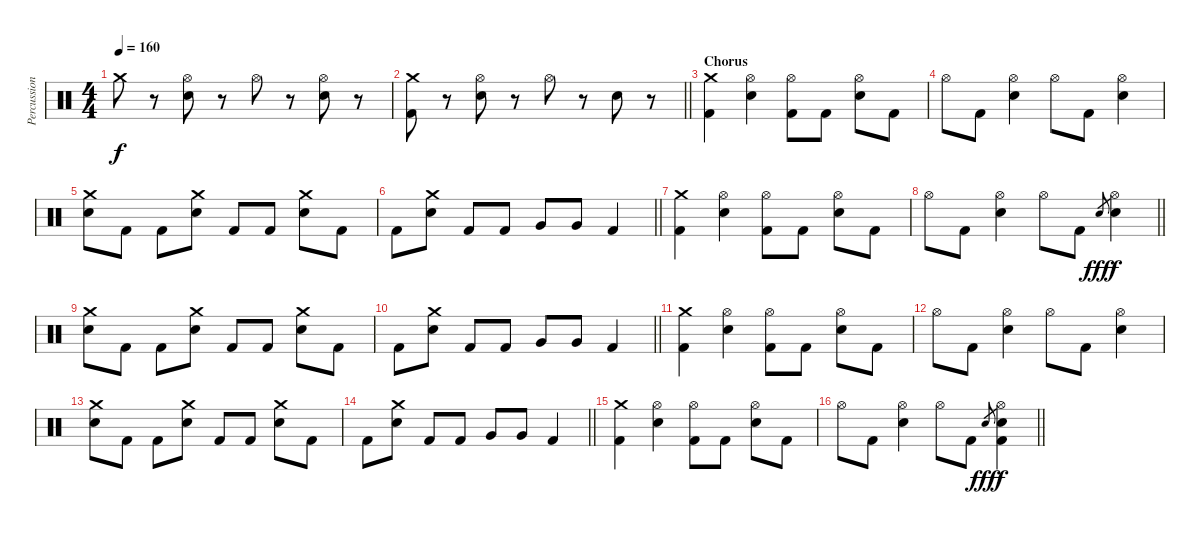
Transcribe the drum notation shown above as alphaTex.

\track ("Percussion" "Percussion") {instrument percussion}
\staff {score}
\articulation defaults
\ts (4 4)
\tempo 160
\clef neutral
\ks c "Crash medium (hit)".8{dy f}
r.8 ("Hi-Hat (open)" "Electric Snare (hit)").8 r.8 "Hi-Hat (open)".8 r.8 ("Hi-Hat (open)" "Electric Snare (hit)").8 r.8 |
\barLineRight lightlight
("Crash medium (hit)" "Kick (hit) 2").8 r.8 ("Hi-Hat (open)" "Electric Snare (hit)").8 r.8 "Hi-Hat (open)".8 r.8 "Electric Snare (hit)".8 r.8 |
\section ("" "Chorus")
("Crash medium (hit)" "Kick (hit) 2").4 ("Hi-Hat (open)" "Electric Snare (hit)").4 ("Hi-Hat (open)" "Kick (hit) 2").8 "Kick (hit) 2".8 ("Hi-Hat (open)" "Electric Snare (hit)").8 "Kick (hit) 2".8 |
"Hi-Hat (open)".8 "Kick (hit) 2".8 ("Hi-Hat (open)" "Electric Snare (hit)").4 "Hi-Hat (open)".8 "Kick (hit) 2".8 ("Hi-Hat (open)" "Electric Snare (hit)").4 |
("Crash medium (hit)" "Electric Snare (hit)").8 "Kick (hit) 2".8 "Kick (hit) 2".8 ("Crash medium (hit)" "Electric Snare (hit)").8 "Kick (hit) 2".8 "Kick (hit) 2".8 ("Crash medium (hit)" "Electric Snare (hit)").8 "Kick (hit) 2".8 |
\barLineRight lightlight "Kick (hit) 2".8
("Crash medium (hit)" "Electric Snare (hit)").8 "Kick (hit) 2".8 "Kick (hit) 2".8 "Very Low Tom (hit)".8 "Very Low Tom (hit)".8 "Kick (hit) 2".4 |
("Crash medium (hit)" "Kick (hit) 2").4 ("Hi-Hat (open)" "Electric Snare (hit)").4 ("Hi-Hat (open)" "Kick (hit) 2").8 "Kick (hit) 2".8 ("Hi-Hat (open)" "Electric Snare (hit)").8 "Kick (hit) 2".8 |
\barLineRight lightlight "Hi-Hat (open)".8 "Kick (hit) 2".8
("Hi-Hat (open)" "Electric Snare (hit)").4 "Hi-Hat (open)".8 "Kick (hit) 2".8 "Electric Snare (hit)".8{gr dy fff} ("Hi-Hat (open)" "Electric Snare (hit)").4{dy f} |
("Crash medium (hit)" "Electric Snare (hit)").8 "Kick (hit) 2".8 "Kick (hit) 2".8 ("Crash medium (hit)" "Electric Snare (hit)").8 "Kick (hit) 2".8 "Kick (hit) 2".8 ("Crash medium (hit)" "Electric Snare (hit)").8 "Kick (hit) 2".8 |
\barLineRight lightlight "Kick (hit) 2".8
("Crash medium (hit)" "Electric Snare (hit)").8 "Kick (hit) 2".8 "Kick (hit) 2".8 "Very Low Tom (hit)".8 "Very Low Tom (hit)".8 "Kick (hit) 2".4 |
("Crash medium (hit)" "Kick (hit) 2").4 ("Hi-Hat (open)" "Electric Snare (hit)").4 ("Hi-Hat (open)" "Kick (hit) 2").8 "Kick (hit) 2".8 ("Hi-Hat (open)" "Electric Snare (hit)").8 "Kick (hit) 2".8 |
"Hi-Hat (open)".8 "Kick (hit) 2".8 ("Hi-Hat (open)" "Electric Snare (hit)").4 "Hi-Hat (open)".8 "Kick (hit) 2".8 ("Hi-Hat (open)" "Electric Snare (hit)").4 |
("Crash medium (hit)" "Electric Snare (hit)").8 "Kick (hit) 2".8 "Kick (hit) 2".8 ("Crash medium (hit)" "Electric Snare (hit)").8 "Kick (hit) 2".8 "Kick (hit) 2".8 ("Crash medium (hit)" "Electric Snare (hit)").8 "Kick (hit) 2".8 |
\barLineRight lightlight "Kick (hit) 2".8
("Crash medium (hit)" "Electric Snare (hit)").8 "Kick (hit) 2".8 "Kick (hit) 2".8 "Very Low Tom (hit)".8 "Very Low Tom (hit)".8 "Kick (hit) 2".4 |
("Crash medium (hit)" "Kick (hit) 2").4 ("Hi-Hat (open)" "Electric Snare (hit)").4 ("Hi-Hat (open)" "Kick (hit) 2").8 "Kick (hit) 2".8 ("Hi-Hat (open)" "Electric Snare (hit)").8 "Kick (hit) 2".8 |
\barLineRight lightlight "Hi-Hat (open)".8 "Kick (hit) 2".8
("Hi-Hat (open)" "Electric Snare (hit)").4 "Hi-Hat (open)".8 "Kick (hit) 2".8 "Electric Snare (hit)".8{gr dy fff} ("Hi-Hat (open)" "Electric Snare (hit)" "Kick (hit) 2").4{dy f}
